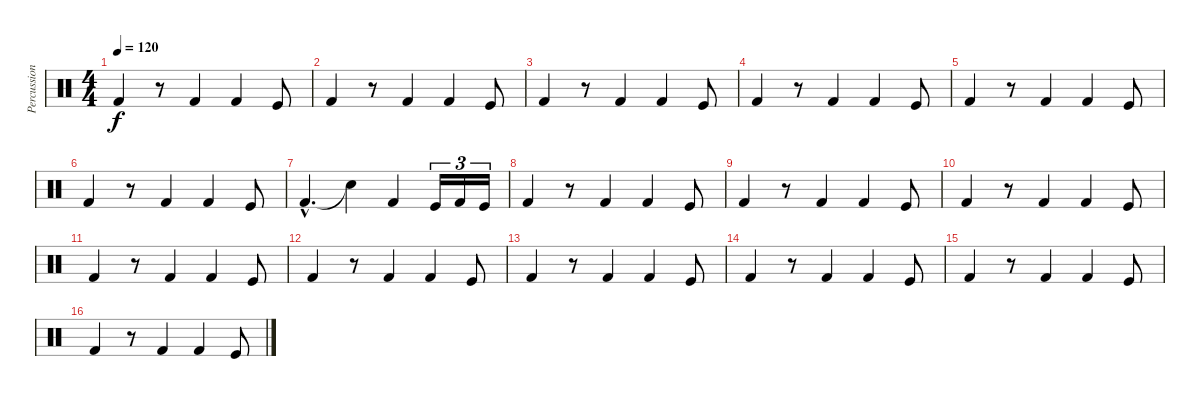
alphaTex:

\track ("Percussion" "Percussion") {instrument percussion}
\staff {score}
\articulation defaults
\ts (4 4)
\tempo 120
\clef neutral
\ks c "Kick (hit) 2".4{dy f}
r.8 "Kick (hit) 2".4 "Kick (hit) 2".4 "Kick (hit)".8 |
"Kick (hit) 2".4 r.8 "Kick (hit) 2".4 "Kick (hit) 2".4 "Kick (hit)".8 |
"Kick (hit) 2".4 r.8 "Kick (hit) 2".4 "Kick (hit) 2".4 "Kick (hit)".8 |
"Kick (hit) 2".4 r.8 "Kick (hit) 2".4 "Kick (hit) 2".4 "Kick (hit)".8 |
"Kick (hit) 2".4 r.8 "Kick (hit) 2".4 "Kick (hit) 2".4 "Kick (hit)".8 |
"Kick (hit) 2".4 r.8 "Kick (hit) 2".4 "Kick (hit) 2".4 "Kick (hit)".8 |
"Kick (hit) 2"{hac}.4{d} "Snare (hit)"{t}.4 "Kick (hit) 2".4 "Kick (hit)".16{tu (3 2)} "Kick (hit) 2".16{tu (3 2)} "Kick (hit)".16{tu (3 2)} |
"Kick (hit) 2".4 r.8 "Kick (hit) 2".4 "Kick (hit) 2".4 "Kick (hit)".8 |
"Kick (hit) 2".4 r.8 "Kick (hit) 2".4 "Kick (hit) 2".4 "Kick (hit)".8 |
"Kick (hit) 2".4 r.8 "Kick (hit) 2".4 "Kick (hit) 2".4 "Kick (hit)".8 |
"Kick (hit) 2".4 r.8 "Kick (hit) 2".4 "Kick (hit) 2".4 "Kick (hit)".8 |
"Kick (hit) 2".4 r.8 "Kick (hit) 2".4 "Kick (hit) 2".4 "Kick (hit)".8 |
"Kick (hit) 2".4 r.8 "Kick (hit) 2".4 "Kick (hit) 2".4 "Kick (hit)".8 |
"Kick (hit) 2".4 r.8 "Kick (hit) 2".4 "Kick (hit) 2".4 "Kick (hit)".8 |
"Kick (hit) 2".4 r.8 "Kick (hit) 2".4 "Kick (hit) 2".4 "Kick (hit)".8 |
"Kick (hit) 2".4 r.8 "Kick (hit) 2".4 "Kick (hit) 2".4 "Kick (hit)".8
